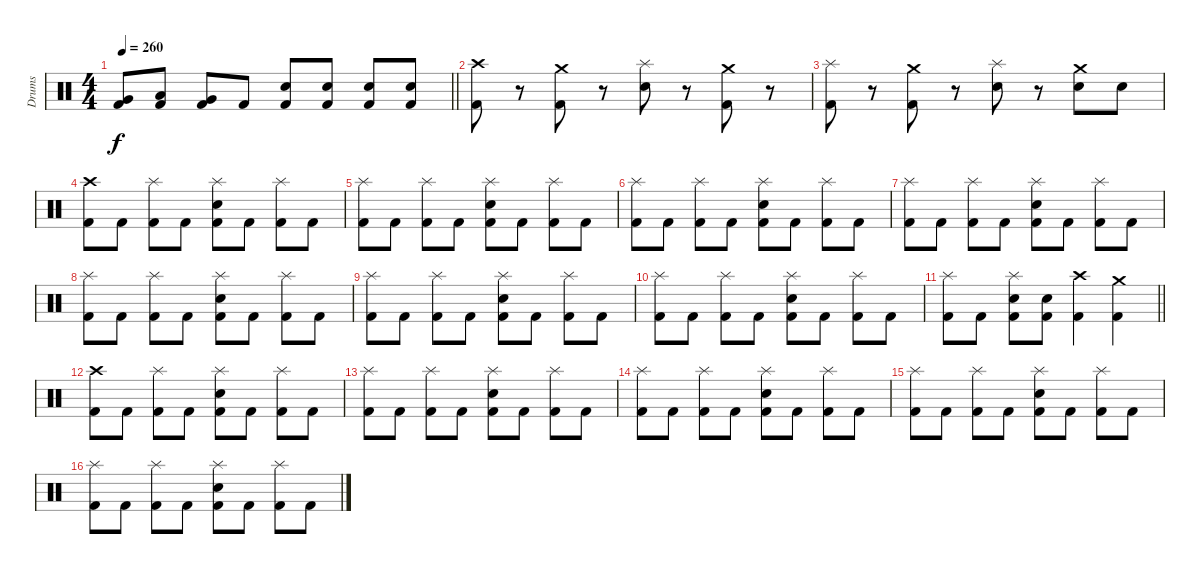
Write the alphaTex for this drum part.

\track ("Drums" "Drums") {instrument percussion}
\staff {score}
\articulation defaults
\ts (4 4)
\tempo 260
\clef neutral
\barLineRight lightlight
\ks c
("Very Low Tom (hit)" "Kick (hit) 2").8{dy f} ("Low Floor Tom (hit)" "Kick (hit) 2").8 ("Very Low Tom (hit)" "Kick (hit) 2").8 "Kick (hit) 2".8 ("Electric Snare (hit)" "Kick (hit) 2").8 ("Electric Snare (hit)" "Kick (hit) 2").8 ("Electric Snare (hit)" "Kick (hit) 2").8 ("Electric Snare (hit)" "Kick (hit) 2").8 |
("Crash high (hit)" "Kick (hit) 2").8 r.8 ("Crash medium (hit)" "Kick (hit) 2").8 r.8 ("Splash (hit)" "Electric Snare (hit)").8 r.8 ("Crash medium (hit)" "Kick (hit) 2").8 r.8 |
("Splash (hit)" "Kick (hit) 2").8 r.8 ("Crash medium (hit)" "Kick (hit) 2").8 r.8 ("Splash (hit)" "Electric Snare (hit)").8 r.8 ("Crash medium (hit)" "Electric Snare (hit)").8 "Electric Snare (hit)".8 |
("Crash high (hit)" "Kick (hit) 2").8 "Kick (hit) 2".8 ("Splash (hit)" "Kick (hit) 2").8 "Kick (hit) 2".8 ("Splash (hit)" "Electric Snare (hit)" "Kick (hit) 2").8 "Kick (hit) 2".8 ("Splash (hit)" "Kick (hit) 2").8 "Kick (hit) 2".8 |
("Splash (hit)" "Kick (hit) 2").8 "Kick (hit) 2".8 ("Splash (hit)" "Kick (hit) 2").8 "Kick (hit) 2".8 ("Splash (hit)" "Electric Snare (hit)" "Kick (hit) 2").8 "Kick (hit) 2".8 ("Splash (hit)" "Kick (hit) 2").8 "Kick (hit) 2".8 |
("Splash (hit)" "Kick (hit) 2").8 "Kick (hit) 2".8 ("Splash (hit)" "Kick (hit) 2").8 "Kick (hit) 2".8 ("Splash (hit)" "Electric Snare (hit)" "Kick (hit) 2").8 "Kick (hit) 2".8 ("Splash (hit)" "Kick (hit) 2").8 "Kick (hit) 2".8 |
("Splash (hit)" "Kick (hit) 2").8 "Kick (hit) 2".8 ("Splash (hit)" "Kick (hit) 2").8 "Kick (hit) 2".8 ("Splash (hit)" "Electric Snare (hit)" "Kick (hit) 2").8 "Kick (hit) 2".8 ("Splash (hit)" "Kick (hit) 2").8 "Kick (hit) 2".8 |
("Splash (hit)" "Kick (hit) 2").8 "Kick (hit) 2".8 ("Splash (hit)" "Kick (hit) 2").8 "Kick (hit) 2".8 ("Splash (hit)" "Electric Snare (hit)" "Kick (hit) 2").8 "Kick (hit) 2".8 ("Splash (hit)" "Kick (hit) 2").8 "Kick (hit) 2".8 |
("Splash (hit)" "Kick (hit) 2").8 "Kick (hit) 2".8 ("Splash (hit)" "Kick (hit) 2").8 "Kick (hit) 2".8 ("Splash (hit)" "Electric Snare (hit)" "Kick (hit) 2").8 "Kick (hit) 2".8 ("Splash (hit)" "Kick (hit) 2").8 "Kick (hit) 2".8 |
("Splash (hit)" "Kick (hit) 2").8 "Kick (hit) 2".8 ("Splash (hit)" "Kick (hit) 2").8 "Kick (hit) 2".8 ("Splash (hit)" "Electric Snare (hit)" "Kick (hit) 2").8 "Kick (hit) 2".8 ("Splash (hit)" "Kick (hit) 2").8 "Kick (hit) 2".8 |
\barLineRight lightlight
("Splash (hit)" "Kick (hit) 2").8 "Kick (hit) 2".8 ("Splash (hit)" "Electric Snare (hit)" "Kick (hit) 2").8 ("Electric Snare (hit)" "Kick (hit) 2").8 ("Crash high (hit)" "Kick (hit) 2").4 ("Crash medium (hit)" "Kick (hit) 2").4 |
("Crash high (hit)" "Kick (hit) 2").8 "Kick (hit) 2".8 ("Splash (hit)" "Kick (hit) 2").8 "Kick (hit) 2".8 ("Splash (hit)" "Electric Snare (hit)" "Kick (hit) 2").8 "Kick (hit) 2".8 ("Splash (hit)" "Kick (hit) 2").8 "Kick (hit) 2".8 |
("Splash (hit)" "Kick (hit) 2").8 "Kick (hit) 2".8 ("Splash (hit)" "Kick (hit) 2").8 "Kick (hit) 2".8 ("Splash (hit)" "Electric Snare (hit)" "Kick (hit) 2").8 "Kick (hit) 2".8 ("Splash (hit)" "Kick (hit) 2").8 "Kick (hit) 2".8 |
("Splash (hit)" "Kick (hit) 2").8 "Kick (hit) 2".8 ("Splash (hit)" "Kick (hit) 2").8 "Kick (hit) 2".8 ("Splash (hit)" "Electric Snare (hit)" "Kick (hit) 2").8 "Kick (hit) 2".8 ("Splash (hit)" "Kick (hit) 2").8 "Kick (hit) 2".8 |
("Splash (hit)" "Kick (hit) 2").8 "Kick (hit) 2".8 ("Splash (hit)" "Kick (hit) 2").8 "Kick (hit) 2".8 ("Splash (hit)" "Electric Snare (hit)" "Kick (hit) 2").8 "Kick (hit) 2".8 ("Splash (hit)" "Kick (hit) 2").8 "Kick (hit) 2".8 |
("Splash (hit)" "Kick (hit) 2").8 "Kick (hit) 2".8 ("Splash (hit)" "Kick (hit) 2").8 "Kick (hit) 2".8 ("Splash (hit)" "Electric Snare (hit)" "Kick (hit) 2").8 "Kick (hit) 2".8 ("Splash (hit)" "Kick (hit) 2").8 "Kick (hit) 2".8
